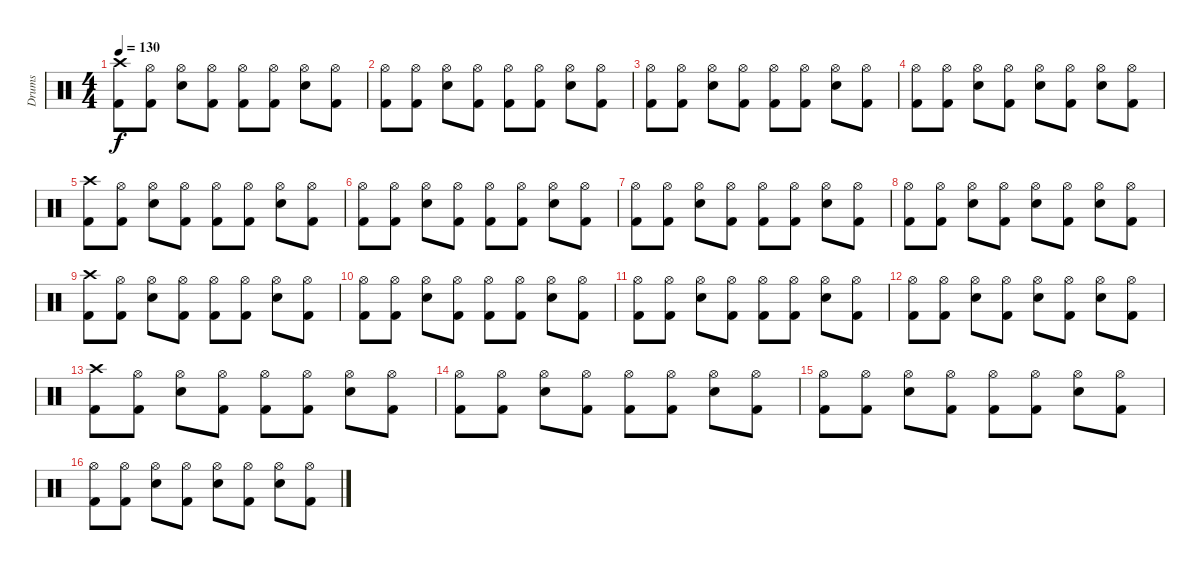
\track ("Drums" "Drums") {instrument percussion}
\staff {score}
\articulation defaults
\ts (4 4)
\tempo 130
\clef neutral
\ks c
("Crash high (hit)" "Kick (hit) 2").8{dy f} ("Hi-Hat (open)" "Kick (hit) 2").8 ("Hi-Hat (open)" "Electric Snare (hit)").8 ("Hi-Hat (open)" "Kick (hit) 2").8 ("Hi-Hat (open)" "Kick (hit) 2").8 ("Hi-Hat (open)" "Kick (hit) 2").8 ("Hi-Hat (open)" "Electric Snare (hit)").8 ("Hi-Hat (open)" "Kick (hit) 2").8 |
("Hi-Hat (open)" "Kick (hit) 2").8 ("Hi-Hat (open)" "Kick (hit) 2").8 ("Hi-Hat (open)" "Electric Snare (hit)").8 ("Hi-Hat (open)" "Kick (hit) 2").8 ("Hi-Hat (open)" "Kick (hit) 2").8 ("Hi-Hat (open)" "Kick (hit) 2").8 ("Hi-Hat (open)" "Electric Snare (hit)").8 ("Hi-Hat (open)" "Kick (hit) 2").8 |
("Hi-Hat (open)" "Kick (hit) 2").8 ("Hi-Hat (open)" "Kick (hit) 2").8 ("Hi-Hat (open)" "Electric Snare (hit)").8 ("Hi-Hat (open)" "Kick (hit) 2").8 ("Hi-Hat (open)" "Kick (hit) 2").8 ("Hi-Hat (open)" "Kick (hit) 2").8 ("Hi-Hat (open)" "Electric Snare (hit)").8 ("Hi-Hat (open)" "Kick (hit) 2").8 |
("Hi-Hat (open)" "Kick (hit) 2").8 ("Hi-Hat (open)" "Kick (hit) 2").8 ("Hi-Hat (open)" "Electric Snare (hit)").8 ("Hi-Hat (open)" "Kick (hit) 2").8 ("Hi-Hat (open)" "Electric Snare (hit)").8 ("Hi-Hat (open)" "Kick (hit) 2").8 ("Hi-Hat (open)" "Electric Snare (hit)").8 ("Hi-Hat (open)" "Kick (hit) 2").8 |
("Crash high (hit)" "Kick (hit) 2").8 ("Hi-Hat (open)" "Kick (hit) 2").8 ("Hi-Hat (open)" "Electric Snare (hit)").8 ("Hi-Hat (open)" "Kick (hit) 2").8 ("Hi-Hat (open)" "Kick (hit) 2").8 ("Hi-Hat (open)" "Kick (hit) 2").8 ("Hi-Hat (open)" "Electric Snare (hit)").8 ("Hi-Hat (open)" "Kick (hit) 2").8 |
("Hi-Hat (open)" "Kick (hit) 2").8 ("Hi-Hat (open)" "Kick (hit) 2").8 ("Hi-Hat (open)" "Electric Snare (hit)").8 ("Hi-Hat (open)" "Kick (hit) 2").8 ("Hi-Hat (open)" "Kick (hit) 2").8 ("Hi-Hat (open)" "Kick (hit) 2").8 ("Hi-Hat (open)" "Electric Snare (hit)").8 ("Hi-Hat (open)" "Kick (hit) 2").8 |
("Hi-Hat (open)" "Kick (hit) 2").8 ("Hi-Hat (open)" "Kick (hit) 2").8 ("Hi-Hat (open)" "Electric Snare (hit)").8 ("Hi-Hat (open)" "Kick (hit) 2").8 ("Hi-Hat (open)" "Kick (hit) 2").8 ("Hi-Hat (open)" "Kick (hit) 2").8 ("Hi-Hat (open)" "Electric Snare (hit)").8 ("Hi-Hat (open)" "Kick (hit) 2").8 |
("Hi-Hat (open)" "Kick (hit) 2").8 ("Hi-Hat (open)" "Kick (hit) 2").8 ("Hi-Hat (open)" "Electric Snare (hit)").8 ("Hi-Hat (open)" "Kick (hit) 2").8 ("Hi-Hat (open)" "Electric Snare (hit)").8 ("Hi-Hat (open)" "Kick (hit) 2").8 ("Hi-Hat (open)" "Electric Snare (hit)").8 ("Hi-Hat (open)" "Kick (hit) 2").8 |
("Crash high (hit)" "Kick (hit) 2").8 ("Hi-Hat (open)" "Kick (hit) 2").8 ("Hi-Hat (open)" "Electric Snare (hit)").8 ("Hi-Hat (open)" "Kick (hit) 2").8 ("Hi-Hat (open)" "Kick (hit) 2").8 ("Hi-Hat (open)" "Kick (hit) 2").8 ("Hi-Hat (open)" "Electric Snare (hit)").8 ("Hi-Hat (open)" "Kick (hit) 2").8 |
("Hi-Hat (open)" "Kick (hit) 2").8 ("Hi-Hat (open)" "Kick (hit) 2").8 ("Hi-Hat (open)" "Electric Snare (hit)").8 ("Hi-Hat (open)" "Kick (hit) 2").8 ("Hi-Hat (open)" "Kick (hit) 2").8 ("Hi-Hat (open)" "Kick (hit) 2").8 ("Hi-Hat (open)" "Electric Snare (hit)").8 ("Hi-Hat (open)" "Kick (hit) 2").8 |
("Hi-Hat (open)" "Kick (hit) 2").8 ("Hi-Hat (open)" "Kick (hit) 2").8 ("Hi-Hat (open)" "Electric Snare (hit)").8 ("Hi-Hat (open)" "Kick (hit) 2").8 ("Hi-Hat (open)" "Kick (hit) 2").8 ("Hi-Hat (open)" "Kick (hit) 2").8 ("Hi-Hat (open)" "Electric Snare (hit)").8 ("Hi-Hat (open)" "Kick (hit) 2").8 |
("Hi-Hat (open)" "Kick (hit) 2").8 ("Hi-Hat (open)" "Kick (hit) 2").8 ("Hi-Hat (open)" "Electric Snare (hit)").8 ("Hi-Hat (open)" "Kick (hit) 2").8 ("Hi-Hat (open)" "Electric Snare (hit)").8 ("Hi-Hat (open)" "Kick (hit) 2").8 ("Hi-Hat (open)" "Electric Snare (hit)").8 ("Hi-Hat (open)" "Kick (hit) 2").8 |
("Crash high (hit)" "Kick (hit) 2").8 ("Hi-Hat (open)" "Kick (hit) 2").8 ("Hi-Hat (open)" "Electric Snare (hit)").8 ("Hi-Hat (open)" "Kick (hit) 2").8 ("Hi-Hat (open)" "Kick (hit) 2").8 ("Hi-Hat (open)" "Kick (hit) 2").8 ("Hi-Hat (open)" "Electric Snare (hit)").8 ("Hi-Hat (open)" "Kick (hit) 2").8 |
("Hi-Hat (open)" "Kick (hit) 2").8 ("Hi-Hat (open)" "Kick (hit) 2").8 ("Hi-Hat (open)" "Electric Snare (hit)").8 ("Hi-Hat (open)" "Kick (hit) 2").8 ("Hi-Hat (open)" "Kick (hit) 2").8 ("Hi-Hat (open)" "Kick (hit) 2").8 ("Hi-Hat (open)" "Electric Snare (hit)").8 ("Hi-Hat (open)" "Kick (hit) 2").8 |
("Hi-Hat (open)" "Kick (hit) 2").8 ("Hi-Hat (open)" "Kick (hit) 2").8 ("Hi-Hat (open)" "Electric Snare (hit)").8 ("Hi-Hat (open)" "Kick (hit) 2").8 ("Hi-Hat (open)" "Kick (hit) 2").8 ("Hi-Hat (open)" "Kick (hit) 2").8 ("Hi-Hat (open)" "Electric Snare (hit)").8 ("Hi-Hat (open)" "Kick (hit) 2").8 |
("Hi-Hat (open)" "Kick (hit) 2").8 ("Hi-Hat (open)" "Kick (hit) 2").8 ("Hi-Hat (open)" "Electric Snare (hit)").8 ("Hi-Hat (open)" "Kick (hit) 2").8 ("Hi-Hat (open)" "Electric Snare (hit)").8 ("Hi-Hat (open)" "Kick (hit) 2").8 ("Hi-Hat (open)" "Electric Snare (hit)").8 ("Hi-Hat (open)" "Kick (hit) 2").8
